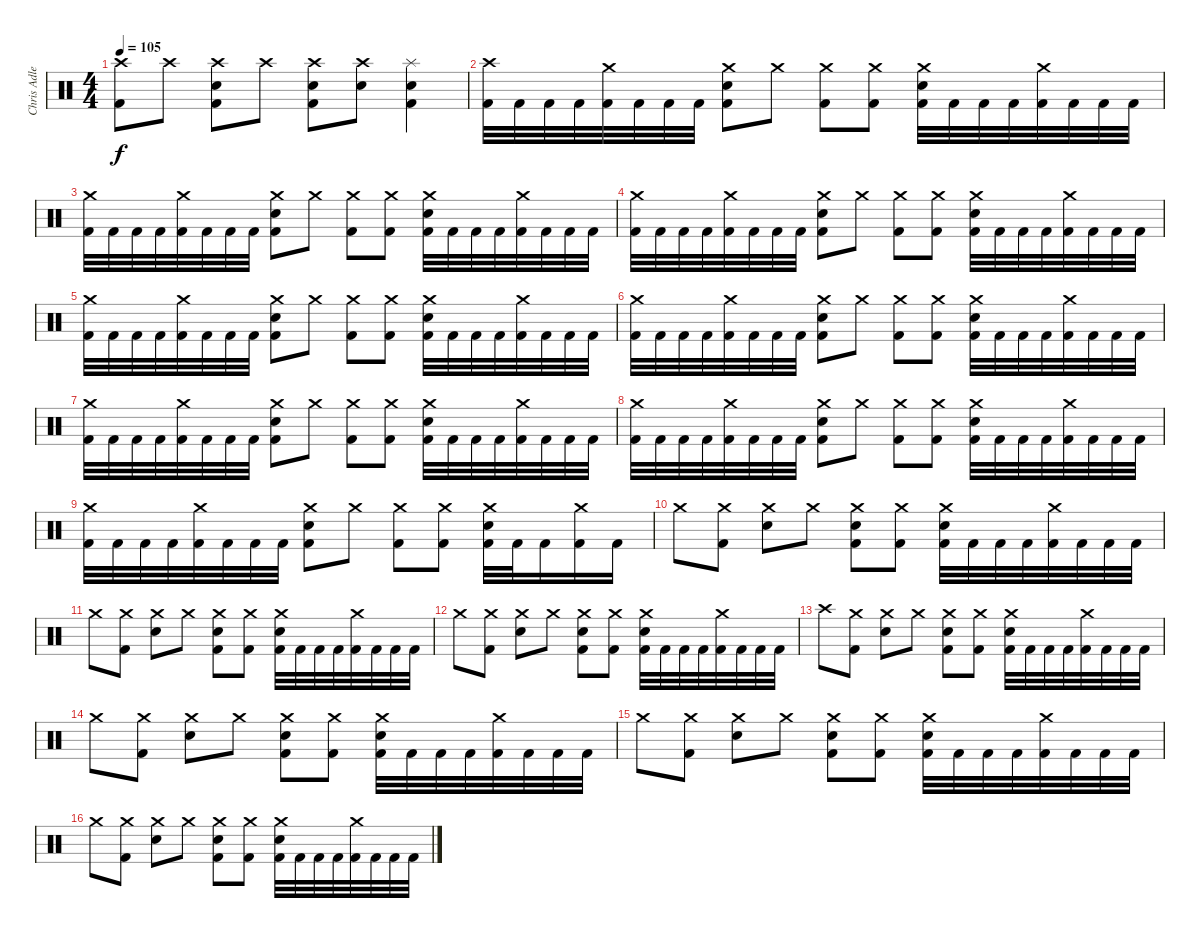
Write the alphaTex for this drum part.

\track ("Chris Adler" "Chris Adle") {instrument percussion}
\staff {score}
\articulation defaults
\ts (4 4)
\tempo 105
\clef neutral
\ks c
("Crash high (hit)" "Kick (hit) 2").8{dy f} "Crash high (hit)".8 ("Crash high (hit)" "Electric Snare (hit)" "Kick (hit) 2").8 "Crash high (hit)".8 ("Crash high (hit)" "Electric Snare (hit)" "Kick (hit) 2").8 ("Crash high (hit)" "Electric Snare (hit)").8 ("Splash (hit)" "Electric Snare (hit)" "Kick (hit) 2").4 |
("Crash high (hit)" "Kick (hit) 2").32 "Kick (hit) 2".32 "Kick (hit) 2".32 "Kick (hit) 2".32 ("Crash medium (hit)" "Kick (hit) 2").32 "Kick (hit) 2".32 "Kick (hit) 2".32 "Kick (hit) 2".32 ("Crash medium (hit)" "Electric Snare (hit)" "Kick (hit) 2").8 "Crash medium (hit)".8 ("Crash medium (hit)" "Kick (hit) 2").8 ("Crash medium (hit)" "Kick (hit) 2").8 ("Crash medium (hit)" "Electric Snare (hit)" "Kick (hit) 2").32 "Kick (hit) 2".32 "Kick (hit) 2".32 "Kick (hit) 2".32 ("Crash medium (hit)" "Kick (hit) 2").32 "Kick (hit) 2".32 "Kick (hit) 2".32 "Kick (hit) 2".32 |
("Crash medium (hit)" "Kick (hit) 2").32 "Kick (hit) 2".32 "Kick (hit) 2".32 "Kick (hit) 2".32 ("Crash medium (hit)" "Kick (hit) 2").32 "Kick (hit) 2".32 "Kick (hit) 2".32 "Kick (hit) 2".32 ("Crash medium (hit)" "Electric Snare (hit)" "Kick (hit) 2").8 "Crash medium (hit)".8 ("Crash medium (hit)" "Kick (hit) 2").8 ("Crash medium (hit)" "Kick (hit) 2").8 ("Crash medium (hit)" "Electric Snare (hit)" "Kick (hit) 2").32 "Kick (hit) 2".32 "Kick (hit) 2".32 "Kick (hit) 2".32 ("Crash medium (hit)" "Kick (hit) 2").32 "Kick (hit) 2".32 "Kick (hit) 2".32 "Kick (hit) 2".32 |
("Crash medium (hit)" "Kick (hit) 2").32 "Kick (hit) 2".32 "Kick (hit) 2".32 "Kick (hit) 2".32 ("Crash medium (hit)" "Kick (hit) 2").32 "Kick (hit) 2".32 "Kick (hit) 2".32 "Kick (hit) 2".32 ("Crash medium (hit)" "Electric Snare (hit)" "Kick (hit) 2").8 "Crash medium (hit)".8 ("Crash medium (hit)" "Kick (hit) 2").8 ("Crash medium (hit)" "Kick (hit) 2").8 ("Crash medium (hit)" "Electric Snare (hit)" "Kick (hit) 2").32 "Kick (hit) 2".32 "Kick (hit) 2".32 "Kick (hit) 2".32 ("Crash medium (hit)" "Kick (hit) 2").32 "Kick (hit) 2".32 "Kick (hit) 2".32 "Kick (hit) 2".32 |
("Crash medium (hit)" "Kick (hit) 2").32 "Kick (hit) 2".32 "Kick (hit) 2".32 "Kick (hit) 2".32 ("Crash medium (hit)" "Kick (hit) 2").32 "Kick (hit) 2".32 "Kick (hit) 2".32 "Kick (hit) 2".32 ("Crash medium (hit)" "Electric Snare (hit)" "Kick (hit) 2").8 "Crash medium (hit)".8 ("Crash medium (hit)" "Kick (hit) 2").8 ("Crash medium (hit)" "Kick (hit) 2").8 ("Crash medium (hit)" "Electric Snare (hit)" "Kick (hit) 2").32 "Kick (hit) 2".32 "Kick (hit) 2".32 "Kick (hit) 2".32 ("Crash medium (hit)" "Kick (hit) 2").32 "Kick (hit) 2".32 "Kick (hit) 2".32 "Kick (hit) 2".32 |
("Crash medium (hit)" "Kick (hit) 2").32 "Kick (hit) 2".32 "Kick (hit) 2".32 "Kick (hit) 2".32 ("Crash medium (hit)" "Kick (hit) 2").32 "Kick (hit) 2".32 "Kick (hit) 2".32 "Kick (hit) 2".32 ("Crash medium (hit)" "Electric Snare (hit)" "Kick (hit) 2").8 "Crash medium (hit)".8 ("Crash medium (hit)" "Kick (hit) 2").8 ("Crash medium (hit)" "Kick (hit) 2").8 ("Crash medium (hit)" "Electric Snare (hit)" "Kick (hit) 2").32 "Kick (hit) 2".32 "Kick (hit) 2".32 "Kick (hit) 2".32 ("Crash medium (hit)" "Kick (hit) 2").32 "Kick (hit) 2".32 "Kick (hit) 2".32 "Kick (hit) 2".32 |
("Crash medium (hit)" "Kick (hit) 2").32 "Kick (hit) 2".32 "Kick (hit) 2".32 "Kick (hit) 2".32 ("Crash medium (hit)" "Kick (hit) 2").32 "Kick (hit) 2".32 "Kick (hit) 2".32 "Kick (hit) 2".32 ("Crash medium (hit)" "Electric Snare (hit)" "Kick (hit) 2").8 "Crash medium (hit)".8 ("Crash medium (hit)" "Kick (hit) 2").8 ("Crash medium (hit)" "Kick (hit) 2").8 ("Crash medium (hit)" "Electric Snare (hit)" "Kick (hit) 2").32 "Kick (hit) 2".32 "Kick (hit) 2".32 "Kick (hit) 2".32 ("Crash medium (hit)" "Kick (hit) 2").32 "Kick (hit) 2".32 "Kick (hit) 2".32 "Kick (hit) 2".32 |
("Crash medium (hit)" "Kick (hit) 2").32 "Kick (hit) 2".32 "Kick (hit) 2".32 "Kick (hit) 2".32 ("Crash medium (hit)" "Kick (hit) 2").32 "Kick (hit) 2".32 "Kick (hit) 2".32 "Kick (hit) 2".32 ("Crash medium (hit)" "Electric Snare (hit)" "Kick (hit) 2").8 "Crash medium (hit)".8 ("Crash medium (hit)" "Kick (hit) 2").8 ("Crash medium (hit)" "Kick (hit) 2").8 ("Crash medium (hit)" "Electric Snare (hit)" "Kick (hit) 2").32 "Kick (hit) 2".32 "Kick (hit) 2".32 "Kick (hit) 2".32 ("Crash medium (hit)" "Kick (hit) 2").32 "Kick (hit) 2".32 "Kick (hit) 2".32 "Kick (hit) 2".32 |
("Crash medium (hit)" "Kick (hit) 2").32 "Kick (hit) 2".32 "Kick (hit) 2".32 "Kick (hit) 2".32 ("Crash medium (hit)" "Kick (hit) 2").32 "Kick (hit) 2".32 "Kick (hit) 2".32 "Kick (hit) 2".32 ("Crash medium (hit)" "Electric Snare (hit)" "Kick (hit) 2").8 "Crash medium (hit)".8 ("Crash medium (hit)" "Kick (hit) 2").8 ("Crash medium (hit)" "Kick (hit) 2").8 ("Crash medium (hit)" "Electric Snare (hit)" "Kick (hit) 2").32 "Kick (hit) 2".32 "Kick (hit) 2".16 ("Crash medium (hit)" "Kick (hit) 2").16 "Kick (hit) 2".16 |
"Crash medium (hit)".8 ("Crash medium (hit)" "Kick (hit) 2").8 ("Crash medium (hit)" "Electric Snare (hit)").8 "Crash medium (hit)".8 ("Crash medium (hit)" "Electric Snare (hit)" "Kick (hit) 2").8 ("Crash medium (hit)" "Kick (hit) 2").8 ("Crash medium (hit)" "Electric Snare (hit)" "Kick (hit) 2").32 "Kick (hit) 2".32 "Kick (hit) 2".32 "Kick (hit) 2".32 ("Crash medium (hit)" "Kick (hit) 2").32 "Kick (hit) 2".32 "Kick (hit) 2".32 "Kick (hit) 2".32 |
"Crash medium (hit)".8 ("Crash medium (hit)" "Kick (hit) 2").8 ("Crash medium (hit)" "Electric Snare (hit)").8 "Crash medium (hit)".8 ("Crash medium (hit)" "Electric Snare (hit)" "Kick (hit) 2").8 ("Crash medium (hit)" "Kick (hit) 2").8 ("Crash medium (hit)" "Electric Snare (hit)" "Kick (hit) 2").32 "Kick (hit) 2".32 "Kick (hit) 2".32 "Kick (hit) 2".32 ("Crash medium (hit)" "Kick (hit) 2").32 "Kick (hit) 2".32 "Kick (hit) 2".32 "Kick (hit) 2".32 |
"Crash medium (hit)".8 ("Crash medium (hit)" "Kick (hit) 2").8 ("Crash medium (hit)" "Electric Snare (hit)").8 "Crash medium (hit)".8 ("Crash medium (hit)" "Electric Snare (hit)" "Kick (hit) 2").8 ("Crash medium (hit)" "Kick (hit) 2").8 ("Crash medium (hit)" "Electric Snare (hit)" "Kick (hit) 2").32 "Kick (hit) 2".32 "Kick (hit) 2".32 "Kick (hit) 2".32 ("Crash medium (hit)" "Kick (hit) 2").32 "Kick (hit) 2".32 "Kick (hit) 2".32 "Kick (hit) 2".32 |
"Crash high (hit)".8 ("Crash medium (hit)" "Kick (hit) 2").8 ("Crash medium (hit)" "Electric Snare (hit)").8 "Crash medium (hit)".8 ("Crash medium (hit)" "Electric Snare (hit)" "Kick (hit) 2").8 ("Crash medium (hit)" "Kick (hit) 2").8 ("Crash medium (hit)" "Electric Snare (hit)" "Kick (hit) 2").32 "Kick (hit) 2".32 "Kick (hit) 2".32 "Kick (hit) 2".32 ("Crash medium (hit)" "Kick (hit) 2").32 "Kick (hit) 2".32 "Kick (hit) 2".32 "Kick (hit) 2".32 |
"Crash medium (hit)".8 ("Crash medium (hit)" "Kick (hit) 2").8 ("Crash medium (hit)" "Electric Snare (hit)").8 "Crash medium (hit)".8 ("Crash medium (hit)" "Electric Snare (hit)" "Kick (hit) 2").8 ("Crash medium (hit)" "Kick (hit) 2").8 ("Crash medium (hit)" "Electric Snare (hit)" "Kick (hit) 2").32 "Kick (hit) 2".32 "Kick (hit) 2".32 "Kick (hit) 2".32 ("Crash medium (hit)" "Kick (hit) 2").32 "Kick (hit) 2".32 "Kick (hit) 2".32 "Kick (hit) 2".32 |
"Crash medium (hit)".8 ("Crash medium (hit)" "Kick (hit) 2").8 ("Crash medium (hit)" "Electric Snare (hit)").8 "Crash medium (hit)".8 ("Crash medium (hit)" "Electric Snare (hit)" "Kick (hit) 2").8 ("Crash medium (hit)" "Kick (hit) 2").8 ("Crash medium (hit)" "Electric Snare (hit)" "Kick (hit) 2").32 "Kick (hit) 2".32 "Kick (hit) 2".32 "Kick (hit) 2".32 ("Crash medium (hit)" "Kick (hit) 2").32 "Kick (hit) 2".32 "Kick (hit) 2".32 "Kick (hit) 2".32 |
"Crash medium (hit)".8 ("Crash medium (hit)" "Kick (hit) 2").8 ("Crash medium (hit)" "Electric Snare (hit)").8 "Crash medium (hit)".8 ("Crash medium (hit)" "Electric Snare (hit)" "Kick (hit) 2").8 ("Crash medium (hit)" "Kick (hit) 2").8 ("Crash medium (hit)" "Electric Snare (hit)" "Kick (hit) 2").32 "Kick (hit) 2".32 "Kick (hit) 2".32 "Kick (hit) 2".32 ("Crash medium (hit)" "Kick (hit) 2").32 "Kick (hit) 2".32 "Kick (hit) 2".32 "Kick (hit) 2".32
